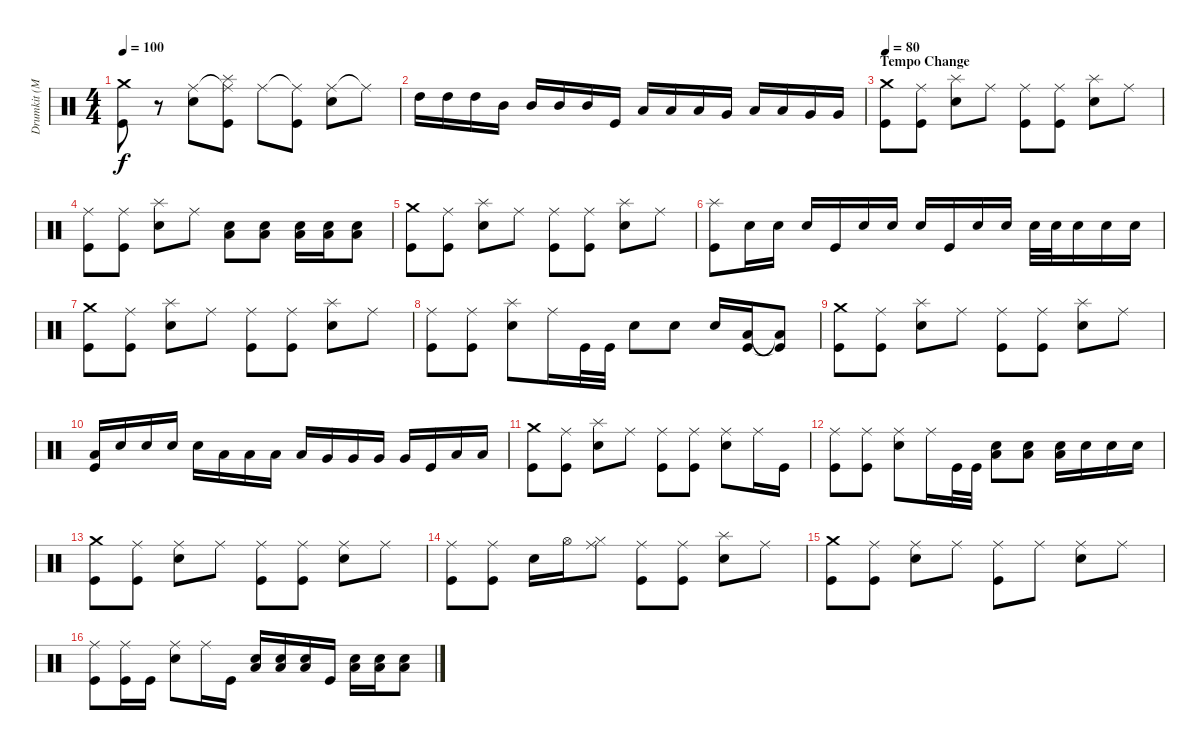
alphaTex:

\track ("Drumkit (McBrain)" "Drumkit (M") {instrument percussion}
\staff {score}
\articulation defaults
\ts (4 4)
\tempo 100
\clef neutral
\ks c
("Kick (hit)" "Crash medium (hit)").8{dy f} r.8 ("Ride (middle)" "Snare (hit) 2").8 ("Ride (middle)"{t} "Kick (hit)" "Splash (hit)").8 "Ride (middle)".8 ("Ride (middle)"{t} "Kick (hit)").8 ("Ride (middle)" "Snare (hit) 2").8 "Ride (middle)"{t}.8 |
"High Tom (hit)".16 "High Tom (hit)".16 "High Tom (hit)".16 "Mid Tom (hit)".16 "Mid Tom (hit)".16 "Mid Tom (hit)".16 "Mid Tom (hit)".16 "Kick (hit)".16 "Low Tom (hit)".16 "Low Tom (hit)".16 "Low Tom (hit)".16 "Very Low Tom (hit)".16 "Low Tom (hit)".16 "Low Tom (hit)".16 "Very Low Tom (hit)".16 "Very Low Tom (hit)".16 |
\section ("" "Tempo Change")
\tempo 80
("Crash medium (hit)" "Kick (hit)").8 ("Ride (middle)" "Kick (hit)").8 ("Splash (hit)" "Snare (hit) 2").8 "Ride (middle)".8 ("Ride (middle)" "Kick (hit)").8 ("Ride (middle)" "Kick (hit)").8 ("Splash (hit)" "Snare (hit) 2").8 "Ride (middle)".8 |
("Kick (hit)" "Ride (middle)").8 ("Ride (middle)" "Kick (hit)").8 ("Splash (hit)" "Snare (hit) 2").8 "Ride (middle)".8 ("Snare (hit) 2" "Low Tom (hit)").8 ("Snare (hit) 2" "Low Tom (hit)").8 ("Snare (hit) 2" "Low Tom (hit)").16 ("Snare (hit) 2" "Low Tom (hit)").16 ("Snare (hit) 2" "Low Tom (hit)").8 |
("Crash medium (hit)" "Kick (hit)").8 ("Ride (middle)" "Kick (hit)").8 ("Splash (hit)" "Snare (hit) 2").8 "Ride (middle)".8 ("Ride (middle)" "Kick (hit)").8 ("Ride (middle)" "Kick (hit)").8 ("Splash (hit)" "Snare (hit) 2").8 "Ride (middle)".8 |
("Kick (hit)" "Splash (hit)").8 "Snare (hit) 2".16 "Snare (hit) 2".16 "Snare (hit) 2".16 "Kick (hit)".16 "Snare (hit) 2".16 "Snare (hit) 2".16 "Snare (hit) 2".16 "Kick (hit)".16 "Snare (hit) 2".16 "Snare (hit) 2".16 "Snare (hit) 2".32 "Snare (hit) 2".32 "Snare (hit) 2".16 "Snare (hit) 2".16 "Snare (hit) 2".16 |
("Crash medium (hit)" "Kick (hit)").8 ("Ride (middle)" "Kick (hit)").8 ("Splash (hit)" "Snare (hit) 2").8 "Ride (middle)".8 ("Ride (middle)" "Kick (hit)").8 ("Ride (middle)" "Kick (hit)").8 ("Splash (hit)" "Snare (hit) 2").8 "Ride (middle)".8 |
("Kick (hit)" "Ride (middle)").8 ("Ride (middle)" "Kick (hit)").8 ("Splash (hit)" "Snare (hit) 2").8 "Ride (middle)".16 "Kick (hit)".32 "Kick (hit)".32 "Snare (hit) 2".8 "Snare (hit) 2".8 "Snare (hit) 2".16 ("Low Tom (hit)" "Kick (hit)").16 ("Kick (hit)"{t} "Low Tom (hit)"{t}).8 |
("Crash medium (hit)" "Kick (hit)").8 ("Ride (middle)" "Kick (hit)").8 ("Splash (hit)" "Snare (hit) 2").8 "Ride (middle)".8 ("Ride (middle)" "Kick (hit)").8 ("Ride (middle)" "Kick (hit)").8 ("Splash (hit)" "Snare (hit) 2").8 "Ride (middle)".8 |
("Kick (hit)" "Low Tom (hit)").16 "Snare (hit) 2".16 "Snare (hit) 2".16 "Snare (hit) 2".16 "Snare (hit) 2".16 "Low Tom (hit)".16 "Low Tom (hit)".16 "Low Tom (hit)".16 "Low Tom (hit)".16 "Very Low Tom (hit)".16 "Very Low Tom (hit)".16 "Very Low Tom (hit)".16 "Very Low Tom (hit)".16 "Kick (hit)".16 "Low Floor Tom (hit)".16 "Low Floor Tom (hit)".16 |
("Crash medium (hit)" "Kick (hit)").8 ("Ride (middle)" "Kick (hit)").8 ("Splash (hit)" "Snare (hit) 2").8 "Ride (middle)".8 ("Ride (middle)" "Kick (hit)").8 ("Ride (middle)" "Kick (hit)").8 ("Snare (hit) 2" "Ride (middle)").8 "Ride (middle)".16 "Kick (hit)".16 |
("Kick (hit)" "Ride (middle)").8 ("Ride (middle)" "Kick (hit)").8 ("Snare (hit) 2" "Ride (middle)").8 "Ride (middle)".16 "Kick (hit)".32 "Kick (hit)".32 ("Snare (hit) 2" "Low Tom (hit)").8 ("Snare (hit) 2" "Low Tom (hit)").8 ("Snare (hit) 2" "Low Tom (hit)").16 "Snare (hit) 2".16 "Snare (hit) 2".16 "Snare (hit) 2".16 |
("Crash medium (hit)" "Kick (hit)").8 ("Ride (middle)" "Kick (hit)").8 ("Snare (hit) 2" "Ride (middle)").8 "Ride (middle)".8 ("Ride (middle)" "Kick (hit)").8 ("Ride (middle)" "Kick (hit)").8 ("Snare (hit) 2" "Ride (middle)").8 "Ride (middle)".8 |
("Kick (hit)" "Ride (middle)").8 ("Ride (middle)" "Kick (hit)").8 "Snare (hit) 2".16 "Hi-Hat (open)".16 ("Ride (middle)" "Hi-Hat (closed)").8 ("Ride (middle)" "Kick (hit)").8 ("Ride (middle)" "Kick (hit)").8 ("Splash (hit)" "Snare (hit) 2").8 "Ride (middle)".8 |
("Crash medium (hit)" "Kick (hit)").8 ("Ride (middle)" "Kick (hit)").8 ("Snare (hit) 2" "Ride (middle)").8 "Ride (middle)".8 ("Ride (middle)" "Kick (hit)").8 "Ride (middle)".8 ("Snare (hit) 2" "Ride (middle)").8 "Ride (middle)".8 |
("Kick (hit)" "Ride (middle)").8 ("Ride (middle)" "Kick (hit)").16 "Kick (hit)".16 ("Snare (hit) 2" "Ride (middle)").8 "Ride (middle)".16 "Kick (hit)".16 ("Snare (hit) 2" "Low Tom (hit)").16 ("Snare (hit) 2" "Low Tom (hit)").16 ("Snare (hit) 2" "Low Tom (hit)").16 "Kick (hit)".16 ("Snare (hit) 2" "Low Tom (hit)").16 ("Snare (hit) 2" "Low Tom (hit)").16 ("Snare (hit) 2" "Low Tom (hit)").8
